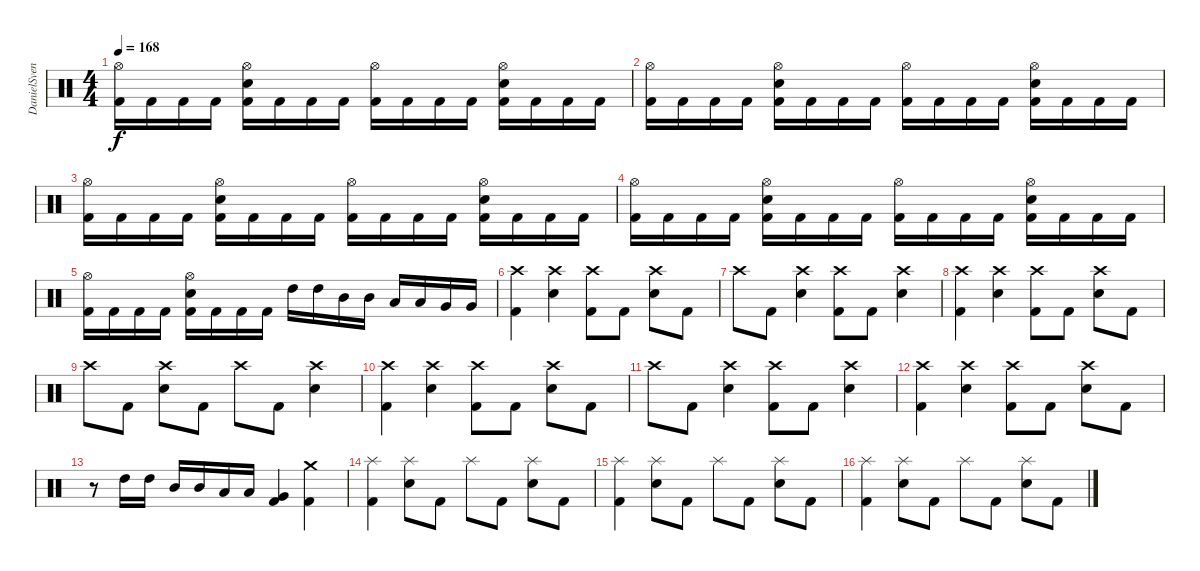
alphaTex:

\track ("DanielSvensson" "DanielSven") {instrument percussion}
\staff {score}
\articulation defaults
\ts (4 4)
\tempo 168
\clef neutral
\ks c
("Hi-Hat (open)" "Kick (hit) 2").16{dy f} "Kick (hit) 2".16 "Kick (hit) 2".16 "Kick (hit) 2".16 ("Hi-Hat (open)" "Electric Snare (hit)" "Kick (hit) 2").16 "Kick (hit) 2".16 "Kick (hit) 2".16 "Kick (hit) 2".16 ("Hi-Hat (open)" "Kick (hit) 2").16 "Kick (hit) 2".16 "Kick (hit) 2".16 "Kick (hit) 2".16 ("Hi-Hat (open)" "Electric Snare (hit)" "Kick (hit) 2").16 "Kick (hit) 2".16 "Kick (hit) 2".16 "Kick (hit) 2".16 |
("Hi-Hat (open)" "Kick (hit) 2").16 "Kick (hit) 2".16 "Kick (hit) 2".16 "Kick (hit) 2".16 ("Hi-Hat (open)" "Electric Snare (hit)" "Kick (hit) 2").16 "Kick (hit) 2".16 "Kick (hit) 2".16 "Kick (hit) 2".16 ("Hi-Hat (open)" "Kick (hit) 2").16 "Kick (hit) 2".16 "Kick (hit) 2".16 "Kick (hit) 2".16 ("Hi-Hat (open)" "Electric Snare (hit)" "Kick (hit) 2").16 "Kick (hit) 2".16 "Kick (hit) 2".16 "Kick (hit) 2".16 |
("Hi-Hat (open)" "Kick (hit) 2").16 "Kick (hit) 2".16 "Kick (hit) 2".16 "Kick (hit) 2".16 ("Hi-Hat (open)" "Electric Snare (hit)" "Kick (hit) 2").16 "Kick (hit) 2".16 "Kick (hit) 2".16 "Kick (hit) 2".16 ("Hi-Hat (open)" "Kick (hit) 2").16 "Kick (hit) 2".16 "Kick (hit) 2".16 "Kick (hit) 2".16 ("Hi-Hat (open)" "Electric Snare (hit)" "Kick (hit) 2").16 "Kick (hit) 2".16 "Kick (hit) 2".16 "Kick (hit) 2".16 |
("Hi-Hat (open)" "Kick (hit) 2").16 "Kick (hit) 2".16 "Kick (hit) 2".16 "Kick (hit) 2".16 ("Hi-Hat (open)" "Electric Snare (hit)" "Kick (hit) 2").16 "Kick (hit) 2".16 "Kick (hit) 2".16 "Kick (hit) 2".16 ("Hi-Hat (open)" "Kick (hit) 2").16 "Kick (hit) 2".16 "Kick (hit) 2".16 "Kick (hit) 2".16 ("Hi-Hat (open)" "Electric Snare (hit)" "Kick (hit) 2").16 "Kick (hit) 2".16 "Kick (hit) 2".16 "Kick (hit) 2".16 |
("Hi-Hat (open)" "Kick (hit) 2").16 "Kick (hit) 2".16 "Kick (hit) 2".16 "Kick (hit) 2".16 ("Hi-Hat (open)" "Electric Snare (hit)" "Kick (hit) 2").16 "Kick (hit) 2".16 "Kick (hit) 2".16 "Kick (hit) 2".16 "High Tom (hit)".16 "High Tom (hit)".16 "Mid Tom (hit)".16 "Mid Tom (hit)".16 "Low Tom (hit)".16 "Low Tom (hit)".16 "Very Low Tom (hit)".16 "Very Low Tom (hit)".16 |
("Crash high (hit)" "Kick (hit) 2").4 ("Crash high (hit)" "Electric Snare (hit)").4 ("Crash high (hit)" "Kick (hit) 2").8 "Kick (hit) 2".8 ("Crash high (hit)" "Electric Snare (hit)").8 "Kick (hit) 2".8 |
"Crash high (hit)".8 "Kick (hit) 2".8 ("Crash high (hit)" "Electric Snare (hit)").4 ("Crash high (hit)" "Kick (hit) 2").8 "Kick (hit) 2".8 ("Crash high (hit)" "Electric Snare (hit)").4 |
("Crash high (hit)" "Kick (hit) 2").4 ("Crash high (hit)" "Electric Snare (hit)").4 ("Crash high (hit)" "Kick (hit) 2").8 "Kick (hit) 2".8 ("Crash high (hit)" "Electric Snare (hit)").8 "Kick (hit) 2".8 |
"Crash high (hit)".8 "Kick (hit) 2".8 ("Crash high (hit)" "Electric Snare (hit)").8 "Kick (hit) 2".8 "Crash high (hit)".8 "Kick (hit) 2".8 ("Crash high (hit)" "Electric Snare (hit)").4 |
("Crash high (hit)" "Kick (hit) 2").4 ("Crash high (hit)" "Electric Snare (hit)").4 ("Crash high (hit)" "Kick (hit) 2").8 "Kick (hit) 2".8 ("Crash high (hit)" "Electric Snare (hit)").8 "Kick (hit) 2".8 |
"Crash high (hit)".8 "Kick (hit) 2".8 ("Crash high (hit)" "Electric Snare (hit)").4 ("Crash high (hit)" "Kick (hit) 2").8 "Kick (hit) 2".8 ("Crash high (hit)" "Electric Snare (hit)").4 |
("Crash high (hit)" "Kick (hit) 2").4 ("Crash high (hit)" "Electric Snare (hit)").4 ("Crash high (hit)" "Kick (hit) 2").8 "Kick (hit) 2".8 ("Crash high (hit)" "Electric Snare (hit)").8 "Kick (hit) 2".8 |
r.8 "High Tom (hit)".16 "High Tom (hit)".16 "Mid Tom (hit)".16 "Mid Tom (hit)".16 "Low Tom (hit)".16 "Low Tom (hit)".16 ("Very Low Tom (hit)" "Kick (hit) 2").4 ("Crash medium (hit)" "Kick (hit) 2").4 |
("Splash (hit)" "Kick (hit) 2").4 ("Splash (hit)" "Electric Snare (hit)").8 "Kick (hit) 2".8 "Splash (hit)".8 "Kick (hit) 2".8 ("Splash (hit)" "Electric Snare (hit)").8 "Kick (hit) 2".8 |
("Splash (hit)" "Kick (hit) 2").4 ("Splash (hit)" "Electric Snare (hit)").8 "Kick (hit) 2".8 "Splash (hit)".8 "Kick (hit) 2".8 ("Splash (hit)" "Electric Snare (hit)").8 "Kick (hit) 2".8 |
("Splash (hit)" "Kick (hit) 2").4 ("Splash (hit)" "Electric Snare (hit)").8 "Kick (hit) 2".8 "Splash (hit)".8 "Kick (hit) 2".8 ("Splash (hit)" "Electric Snare (hit)").8 "Kick (hit) 2".8
